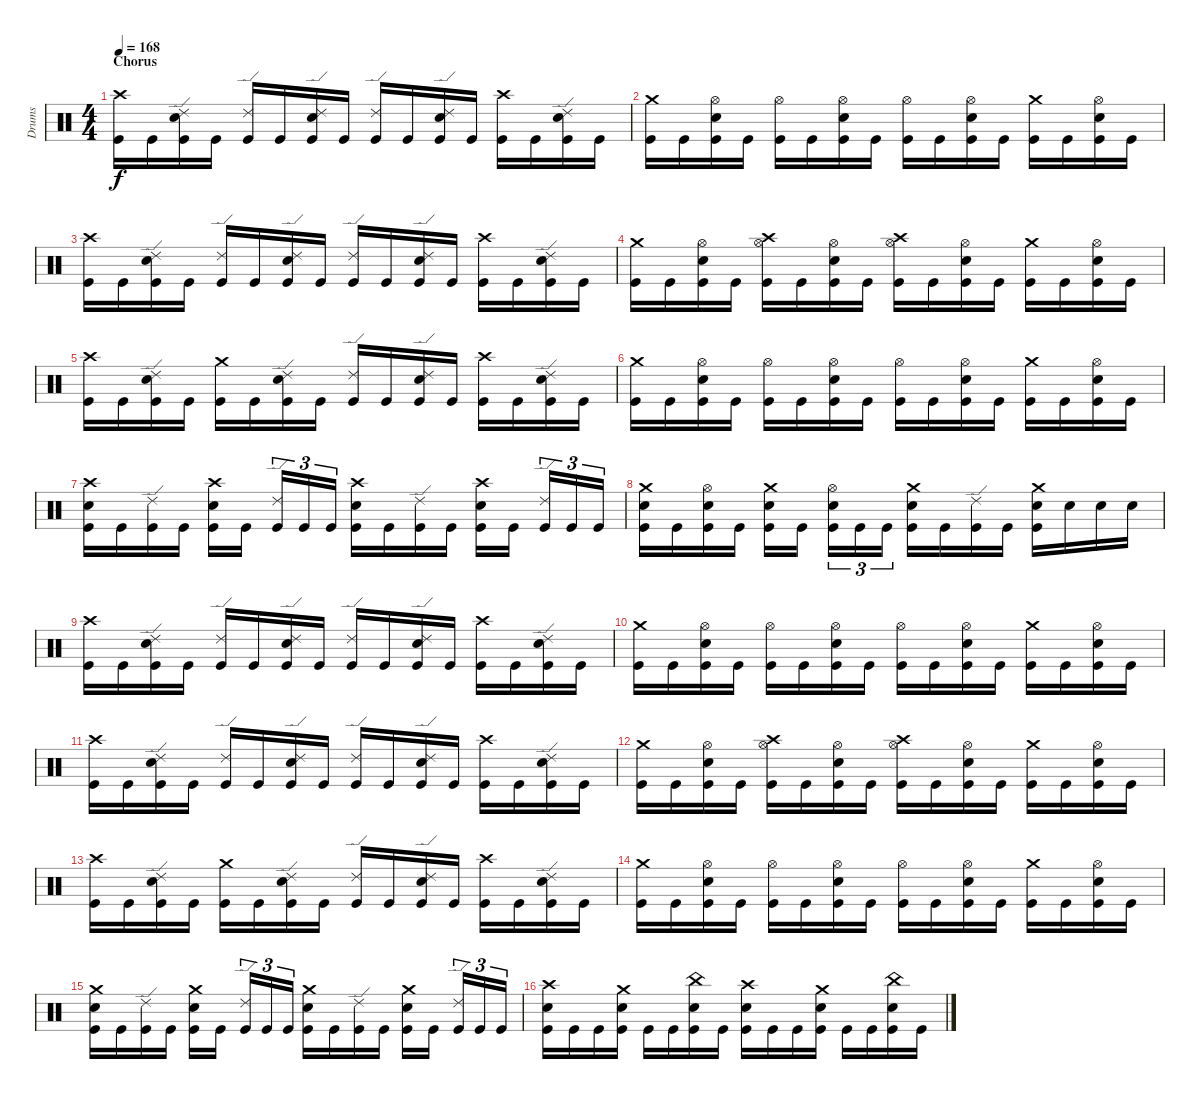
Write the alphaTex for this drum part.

\track ("Drums" "Drums") {instrument percussion}
\staff {score}
\articulation defaults
\ts (4 4)
\section ("" "Chorus")
\tempo 168
\clef neutral
\ks c
("Crash high (hit)" "Kick (hit)").16{dy f} "Kick (hit)".16 ("Ride (edge) 2" "Electric Snare (hit)" "Kick (hit)").16 "Kick (hit)".16 ("Ride (edge) 2" "Kick (hit)").16 "Kick (hit)".16 ("Ride (edge) 2" "Electric Snare (hit)" "Kick (hit)").16 "Kick (hit)".16 ("Ride (edge) 2" "Kick (hit)").16 "Kick (hit)".16 ("Ride (edge) 2" "Electric Snare (hit)" "Kick (hit)").16 "Kick (hit)".16 ("Crash high (hit)" "Kick (hit)").16 "Kick (hit)".16 ("Ride (edge) 2" "Electric Snare (hit)" "Kick (hit)").16 "Kick (hit)".16 |
("Crash medium (hit)" "Kick (hit)").16 "Kick (hit)".16 ("Hi-Hat (open)" "Electric Snare (hit)" "Kick (hit)").16 "Kick (hit)".16 ("Hi-Hat (open)" "Kick (hit)").16 "Kick (hit)".16 ("Hi-Hat (open)" "Electric Snare (hit)" "Kick (hit)").16 "Kick (hit)".16 ("Hi-Hat (open)" "Kick (hit)").16 "Kick (hit)".16 ("Hi-Hat (open)" "Electric Snare (hit)" "Kick (hit)").16 "Kick (hit)".16 ("Crash medium (hit)" "Kick (hit)").16 "Kick (hit)".16 ("Hi-Hat (open)" "Electric Snare (hit)" "Kick (hit)").16 "Kick (hit)".16 |
("Crash high (hit)" "Kick (hit)").16 "Kick (hit)".16 ("Ride (edge) 2" "Electric Snare (hit)" "Kick (hit)").16 "Kick (hit)".16 ("Ride (edge) 2" "Kick (hit)").16 "Kick (hit)".16 ("Ride (edge) 2" "Electric Snare (hit)" "Kick (hit)").16 "Kick (hit)".16 ("Ride (edge) 2" "Kick (hit)").16 "Kick (hit)".16 ("Ride (edge) 2" "Electric Snare (hit)" "Kick (hit)").16 "Kick (hit)".16 ("Crash high (hit)" "Kick (hit)").16 "Kick (hit)".16 ("Ride (edge) 2" "Electric Snare (hit)" "Kick (hit)").16 "Kick (hit)".16 |
("Crash medium (hit)" "Kick (hit)").16 "Kick (hit)".16 ("Hi-Hat (open)" "Electric Snare (hit)" "Kick (hit)").16 "Kick (hit)".16 ("Hi-Hat (open)" "Crash high (hit)" "Kick (hit)").16 "Kick (hit)".16 ("Hi-Hat (open)" "Electric Snare (hit)" "Kick (hit)").16 "Kick (hit)".16 ("Hi-Hat (open)" "Crash high (hit)" "Kick (hit)").16 "Kick (hit)".16 ("Hi-Hat (open)" "Electric Snare (hit)" "Kick (hit)").16 "Kick (hit)".16 ("Crash medium (hit)" "Kick (hit)").16 "Kick (hit)".16 ("Hi-Hat (open)" "Electric Snare (hit)" "Kick (hit)").16 "Kick (hit)".16 |
("Crash high (hit)" "Kick (hit)").16 "Kick (hit)".16 ("Ride (edge) 2" "Electric Snare (hit)" "Kick (hit)").16 "Kick (hit)".16 ("Crash medium (hit)" "Kick (hit)").16 "Kick (hit)".16 ("Ride (edge) 2" "Electric Snare (hit)" "Kick (hit)").16 "Kick (hit)".16 ("Ride (edge) 2" "Kick (hit)").16 "Kick (hit)".16 ("Ride (edge) 2" "Electric Snare (hit)" "Kick (hit)").16 "Kick (hit)".16 ("Crash high (hit)" "Kick (hit)").16 "Kick (hit)".16 ("Ride (edge) 2" "Electric Snare (hit)" "Kick (hit)").16 "Kick (hit)".16 |
("Crash medium (hit)" "Kick (hit)").16 "Kick (hit)".16 ("Hi-Hat (open)" "Electric Snare (hit)" "Kick (hit)").16 "Kick (hit)".16 ("Hi-Hat (open)" "Kick (hit)").16 "Kick (hit)".16 ("Hi-Hat (open)" "Electric Snare (hit)" "Kick (hit)").16 "Kick (hit)".16 ("Hi-Hat (open)" "Kick (hit)").16 "Kick (hit)".16 ("Hi-Hat (open)" "Electric Snare (hit)" "Kick (hit)").16 "Kick (hit)".16 ("Crash medium (hit)" "Kick (hit)").16 "Kick (hit)".16 ("Hi-Hat (open)" "Electric Snare (hit)" "Kick (hit)").16 "Kick (hit)".16 |
("Crash high (hit)" "Electric Snare (hit)" "Kick (hit)").16 "Kick (hit)".16 ("Ride (edge) 2" "Kick (hit)").16 "Kick (hit)".16 ("Crash high (hit)" "Electric Snare (hit)" "Kick (hit)").16 "Kick (hit)".16 ("Ride (edge) 2" "Kick (hit)").16{tu (3 2)} "Kick (hit)".16{tu (3 2)} "Kick (hit)".16{tu (3 2)} ("Crash high (hit)" "Electric Snare (hit)" "Kick (hit)").16 "Kick (hit)".16 ("Ride (edge) 2" "Kick (hit)").16 "Kick (hit)".16 ("Crash high (hit)" "Electric Snare (hit)" "Kick (hit)").16 "Kick (hit)".16 ("Ride (edge) 2" "Kick (hit)").16{tu (3 2)} "Kick (hit)".16{tu (3 2)} "Kick (hit)".16{tu (3 2)} |
("Crash medium (hit)" "Electric Snare (hit)" "Kick (hit)").16 "Kick (hit)".16 ("Hi-Hat (open)" "Electric Snare (hit)" "Kick (hit)").16 "Kick (hit)".16 ("Crash medium (hit)" "Electric Snare (hit)" "Kick (hit)").16 "Kick (hit)".16 ("Hi-Hat (open)" "Electric Snare (hit)" "Kick (hit)").16{tu (3 2)} "Kick (hit)".16{tu (3 2)} "Kick (hit)".16{tu (3 2)} ("Crash medium (hit)" "Electric Snare (hit)" "Kick (hit)").16 "Kick (hit)".16 ("Ride (edge) 2" "Kick (hit)").16 "Kick (hit)".16 ("Crash medium (hit)" "Electric Snare (hit)" "Kick (hit)").16 "Electric Snare (hit)".16 "Electric Snare (hit)".16 "Electric Snare (hit)".16 |
("Crash high (hit)" "Kick (hit)").16 "Kick (hit)".16 ("Ride (edge) 2" "Electric Snare (hit)" "Kick (hit)").16 "Kick (hit)".16 ("Ride (edge) 2" "Kick (hit)").16 "Kick (hit)".16 ("Ride (edge) 2" "Electric Snare (hit)" "Kick (hit)").16 "Kick (hit)".16 ("Ride (edge) 2" "Kick (hit)").16 "Kick (hit)".16 ("Ride (edge) 2" "Electric Snare (hit)" "Kick (hit)").16 "Kick (hit)".16 ("Crash high (hit)" "Kick (hit)").16 "Kick (hit)".16 ("Ride (edge) 2" "Electric Snare (hit)" "Kick (hit)").16 "Kick (hit)".16 |
("Crash medium (hit)" "Kick (hit)").16 "Kick (hit)".16 ("Hi-Hat (open)" "Electric Snare (hit)" "Kick (hit)").16 "Kick (hit)".16 ("Hi-Hat (open)" "Kick (hit)").16 "Kick (hit)".16 ("Hi-Hat (open)" "Electric Snare (hit)" "Kick (hit)").16 "Kick (hit)".16 ("Hi-Hat (open)" "Kick (hit)").16 "Kick (hit)".16 ("Hi-Hat (open)" "Electric Snare (hit)" "Kick (hit)").16 "Kick (hit)".16 ("Crash medium (hit)" "Kick (hit)").16 "Kick (hit)".16 ("Hi-Hat (open)" "Electric Snare (hit)" "Kick (hit)").16 "Kick (hit)".16 |
("Crash high (hit)" "Kick (hit)").16 "Kick (hit)".16 ("Ride (edge) 2" "Electric Snare (hit)" "Kick (hit)").16 "Kick (hit)".16 ("Ride (edge) 2" "Kick (hit)").16 "Kick (hit)".16 ("Ride (edge) 2" "Electric Snare (hit)" "Kick (hit)").16 "Kick (hit)".16 ("Ride (edge) 2" "Kick (hit)").16 "Kick (hit)".16 ("Ride (edge) 2" "Electric Snare (hit)" "Kick (hit)").16 "Kick (hit)".16 ("Crash high (hit)" "Kick (hit)").16 "Kick (hit)".16 ("Ride (edge) 2" "Electric Snare (hit)" "Kick (hit)").16 "Kick (hit)".16 |
("Crash medium (hit)" "Kick (hit)").16 "Kick (hit)".16 ("Hi-Hat (open)" "Electric Snare (hit)" "Kick (hit)").16 "Kick (hit)".16 ("Hi-Hat (open)" "Crash high (hit)" "Kick (hit)").16 "Kick (hit)".16 ("Hi-Hat (open)" "Electric Snare (hit)" "Kick (hit)").16 "Kick (hit)".16 ("Hi-Hat (open)" "Crash high (hit)" "Kick (hit)").16 "Kick (hit)".16 ("Hi-Hat (open)" "Electric Snare (hit)" "Kick (hit)").16 "Kick (hit)".16 ("Crash medium (hit)" "Kick (hit)").16 "Kick (hit)".16 ("Hi-Hat (open)" "Electric Snare (hit)" "Kick (hit)").16 "Kick (hit)".16 |
("Crash high (hit)" "Kick (hit)").16 "Kick (hit)".16 ("Ride (edge) 2" "Electric Snare (hit)" "Kick (hit)").16 "Kick (hit)".16 ("Crash medium (hit)" "Kick (hit)").16 "Kick (hit)".16 ("Ride (edge) 2" "Electric Snare (hit)" "Kick (hit)").16 "Kick (hit)".16 ("Ride (edge) 2" "Kick (hit)").16 "Kick (hit)".16 ("Ride (edge) 2" "Electric Snare (hit)" "Kick (hit)").16 "Kick (hit)".16 ("Crash high (hit)" "Kick (hit)").16 "Kick (hit)".16 ("Ride (edge) 2" "Electric Snare (hit)" "Kick (hit)").16 "Kick (hit)".16 |
("Crash medium (hit)" "Kick (hit)").16 "Kick (hit)".16 ("Hi-Hat (open)" "Electric Snare (hit)" "Kick (hit)").16 "Kick (hit)".16 ("Hi-Hat (open)" "Kick (hit)").16 "Kick (hit)".16 ("Hi-Hat (open)" "Electric Snare (hit)" "Kick (hit)").16 "Kick (hit)".16 ("Hi-Hat (open)" "Kick (hit)").16 "Kick (hit)".16 ("Hi-Hat (open)" "Electric Snare (hit)" "Kick (hit)").16 "Kick (hit)".16 ("Crash medium (hit)" "Kick (hit)").16 "Kick (hit)".16 ("Hi-Hat (open)" "Electric Snare (hit)" "Kick (hit)").16 "Kick (hit)".16 |
("Crash medium (hit)" "Electric Snare (hit)" "Kick (hit)").16 "Kick (hit)".16 ("Ride (edge) 2" "Kick (hit)").16 "Kick (hit)".16 ("Crash medium (hit)" "Electric Snare (hit)" "Kick (hit)").16 "Kick (hit)".16 ("Ride (edge) 2" "Kick (hit)").16{tu (3 2)} "Kick (hit)".16{tu (3 2)} "Kick (hit)".16{tu (3 2)} ("Crash medium (hit)" "Electric Snare (hit)" "Kick (hit)").16 "Kick (hit)".16 ("Ride (edge) 2" "Kick (hit)").16 "Kick (hit)".16 ("Crash medium (hit)" "Electric Snare (hit)" "Kick (hit)").16 "Kick (hit)".16 ("Ride (edge) 2" "Kick (hit)").16{tu (3 2)} "Kick (hit)".16{tu (3 2)} "Kick (hit)".16{tu (3 2)} |
("Crash high (hit)" "Electric Snare (hit)" "Kick (hit)").16 "Kick (hit)".16 "Kick (hit)".16 ("Crash medium (hit)" "Electric Snare (hit)" "Kick (hit)").16 "Kick (hit)".16 "Kick (hit)".16 ("China (hit)" "Electric Snare (hit)" "Kick (hit)").16 "Kick (hit)".16 ("Crash high (hit)" "Electric Snare (hit)" "Kick (hit)").16 "Kick (hit)".16 "Kick (hit)".16 ("Crash medium (hit)" "Electric Snare (hit)" "Kick (hit)").16 "Kick (hit)".16 "Kick (hit)".16 ("China (hit)" "Electric Snare (hit)" "Kick (hit)").16 "Kick (hit)".16
